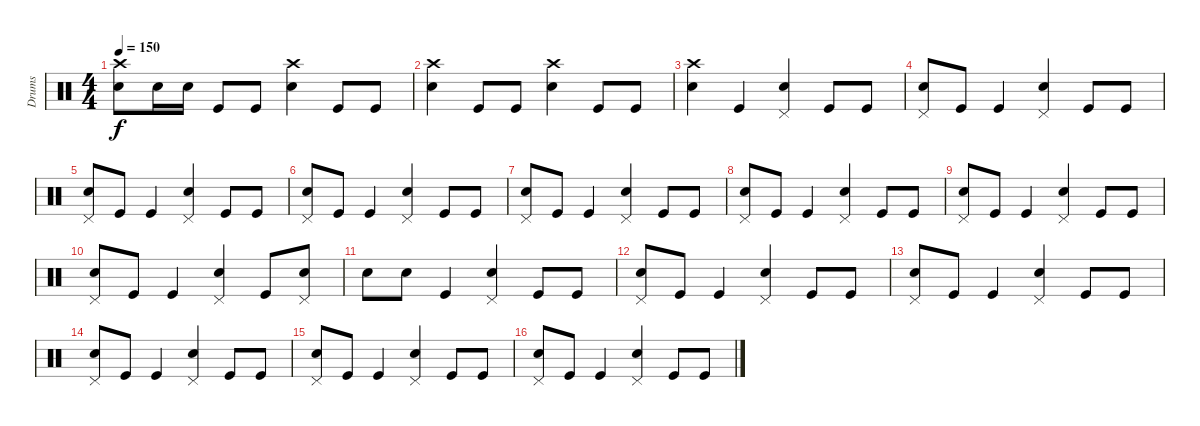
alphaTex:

\track ("Drums" "Drums") {instrument percussion}
\staff {score}
\articulation defaults
\ts (4 4)
\tempo 150
\clef neutral
\ks c
("Snare (hit) 2" "Crash high (hit)").8{dy f} "Snare (hit) 2".16 "Snare (hit) 2".16 "Kick (hit)".8 "Kick (hit)".8 ("Snare (hit) 2" "Crash high (hit)").4 "Kick (hit)".8 "Kick (hit)".8 |
("Snare (hit) 2" "Crash high (hit)").4 "Kick (hit)".8 "Kick (hit)".8 ("Snare (hit) 2" "Crash high (hit)").4 "Kick (hit)".8 "Kick (hit)".8 |
("Snare (hit) 2" "Crash high (hit)").4 "Kick (hit)".4 ("Snare (hit) 2" "Pedal Hi-Hat (hit)").4 "Kick (hit)".8 "Kick (hit)".8 |
("Snare (hit) 2" "Pedal Hi-Hat (hit)").8 "Kick (hit)".8 "Kick (hit)".4 ("Snare (hit) 2" "Pedal Hi-Hat (hit)").4 "Kick (hit)".8 "Kick (hit)".8 |
("Snare (hit) 2" "Pedal Hi-Hat (hit)").8 "Kick (hit)".8 "Kick (hit)".4 ("Snare (hit) 2" "Pedal Hi-Hat (hit)").4 "Kick (hit)".8 "Kick (hit)".8 |
("Snare (hit) 2" "Pedal Hi-Hat (hit)").8 "Kick (hit)".8 "Kick (hit)".4 ("Snare (hit) 2" "Pedal Hi-Hat (hit)").4 "Kick (hit)".8 "Kick (hit)".8 |
("Snare (hit) 2" "Pedal Hi-Hat (hit)").8 "Kick (hit)".8 "Kick (hit)".4 ("Snare (hit) 2" "Pedal Hi-Hat (hit)").4 "Kick (hit)".8 "Kick (hit)".8 |
("Snare (hit) 2" "Pedal Hi-Hat (hit)").8 "Kick (hit)".8 "Kick (hit)".4 ("Snare (hit) 2" "Pedal Hi-Hat (hit)").4 "Kick (hit)".8 "Kick (hit)".8 |
("Snare (hit) 2" "Pedal Hi-Hat (hit)").8 "Kick (hit)".8 "Kick (hit)".4 ("Snare (hit) 2" "Pedal Hi-Hat (hit)").4 "Kick (hit)".8 "Kick (hit)".8 |
("Snare (hit) 2" "Pedal Hi-Hat (hit)").8 "Kick (hit)".8 "Kick (hit)".4 ("Snare (hit) 2" "Pedal Hi-Hat (hit)").4 "Kick (hit)".8 ("Snare (hit) 2" "Pedal Hi-Hat (hit)").8 |
"Snare (hit) 2".8 "Snare (hit) 2".8 "Kick (hit)".4 ("Snare (hit) 2" "Pedal Hi-Hat (hit)").4 "Kick (hit)".8 "Kick (hit)".8 |
("Snare (hit) 2" "Pedal Hi-Hat (hit)").8 "Kick (hit)".8 "Kick (hit)".4 ("Snare (hit) 2" "Pedal Hi-Hat (hit)").4 "Kick (hit)".8 "Kick (hit)".8 |
("Snare (hit) 2" "Pedal Hi-Hat (hit)").8 "Kick (hit)".8 "Kick (hit)".4 ("Snare (hit) 2" "Pedal Hi-Hat (hit)").4 "Kick (hit)".8 "Kick (hit)".8 |
("Snare (hit) 2" "Pedal Hi-Hat (hit)").8 "Kick (hit)".8 "Kick (hit)".4 ("Snare (hit) 2" "Pedal Hi-Hat (hit)").4 "Kick (hit)".8 "Kick (hit)".8 |
("Snare (hit) 2" "Pedal Hi-Hat (hit)").8 "Kick (hit)".8 "Kick (hit)".4 ("Snare (hit) 2" "Pedal Hi-Hat (hit)").4 "Kick (hit)".8 "Kick (hit)".8 |
("Snare (hit) 2" "Pedal Hi-Hat (hit)").8 "Kick (hit)".8 "Kick (hit)".4 ("Snare (hit) 2" "Pedal Hi-Hat (hit)").4 "Kick (hit)".8 "Kick (hit)".8
